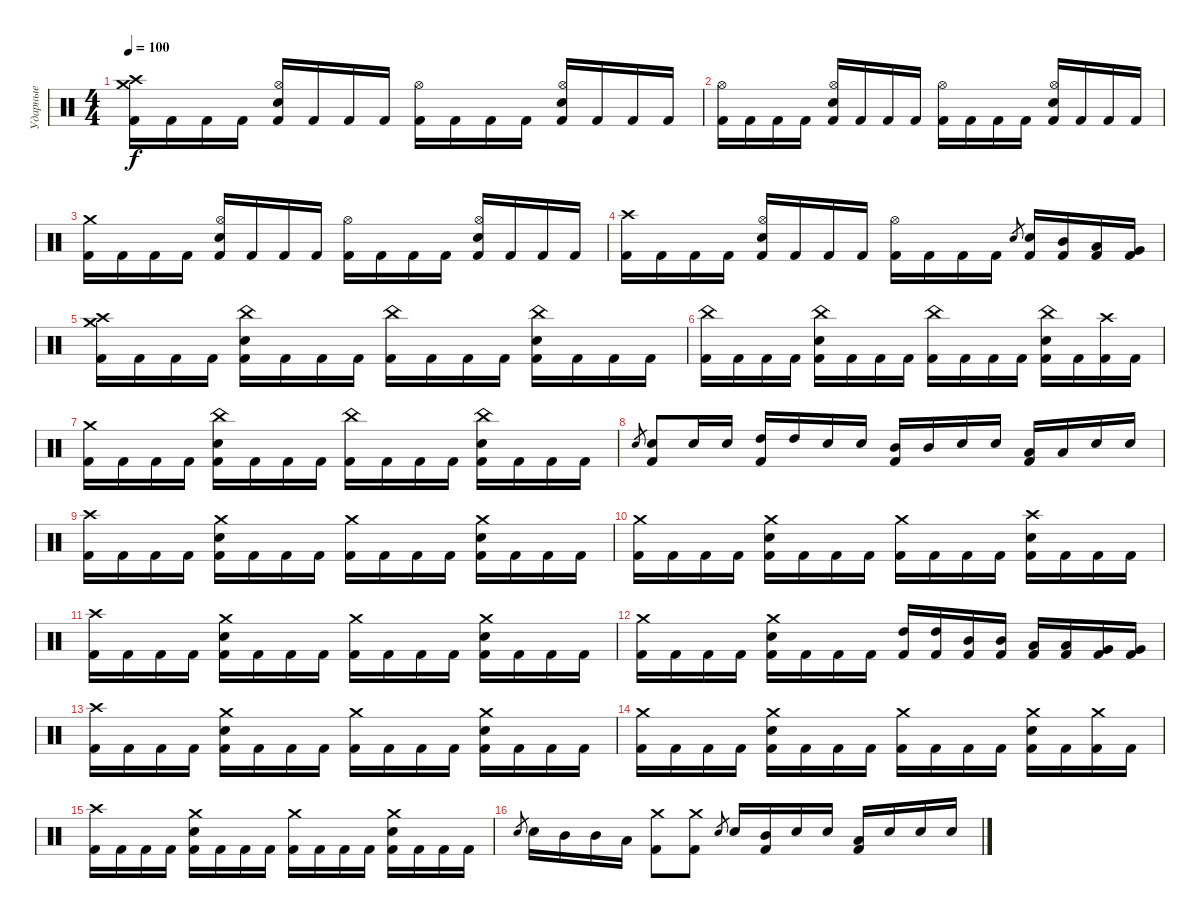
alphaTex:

\track ("Ударные" "Ударные") {instrument percussion}
\staff {score}
\articulation defaults
\ts (4 4)
\tempo 100
\clef neutral
\ks c
("Crash medium (hit)" "Crash high (hit)" "Kick (hit) 2").16{dy f} "Kick (hit) 2".16 "Kick (hit) 2".16 "Kick (hit) 2".16 ("Hi-Hat (open)" "Electric Snare (hit)" "Kick (hit) 2").16 "Kick (hit) 2".16 "Kick (hit) 2".16 "Kick (hit) 2".16 ("Hi-Hat (open)" "Kick (hit) 2").16 "Kick (hit) 2".16 "Kick (hit) 2".16 "Kick (hit) 2".16 ("Hi-Hat (open)" "Electric Snare (hit)" "Kick (hit) 2").16 "Kick (hit) 2".16 "Kick (hit) 2".16 "Kick (hit) 2".16 |
("Hi-Hat (open)" "Kick (hit) 2").16 "Kick (hit) 2".16 "Kick (hit) 2".16 "Kick (hit) 2".16 ("Hi-Hat (open)" "Electric Snare (hit)" "Kick (hit) 2").16 "Kick (hit) 2".16 "Kick (hit) 2".16 "Kick (hit) 2".16 ("Hi-Hat (open)" "Kick (hit) 2").16 "Kick (hit) 2".16 "Kick (hit) 2".16 "Kick (hit) 2".16 ("Hi-Hat (open)" "Electric Snare (hit)" "Kick (hit) 2").16 "Kick (hit) 2".16 "Kick (hit) 2".16 "Kick (hit) 2".16 |
("Crash medium (hit)" "Kick (hit) 2").16 "Kick (hit) 2".16 "Kick (hit) 2".16 "Kick (hit) 2".16 ("Hi-Hat (open)" "Electric Snare (hit)" "Kick (hit) 2").16 "Kick (hit) 2".16 "Kick (hit) 2".16 "Kick (hit) 2".16 ("Hi-Hat (open)" "Kick (hit) 2").16 "Kick (hit) 2".16 "Kick (hit) 2".16 "Kick (hit) 2".16 ("Hi-Hat (open)" "Electric Snare (hit)" "Kick (hit) 2").16 "Kick (hit) 2".16 "Kick (hit) 2".16 "Kick (hit) 2".16 |
("Crash high (hit)" "Kick (hit) 2").16 "Kick (hit) 2".16 "Kick (hit) 2".16 "Kick (hit) 2".16 ("Hi-Hat (open)" "Electric Snare (hit)" "Kick (hit) 2").16 "Kick (hit) 2".16 "Kick (hit) 2".16 "Kick (hit) 2".16 ("Hi-Hat (open)" "Kick (hit) 2").16 "Kick (hit) 2".16 "Kick (hit) 2".16 "Kick (hit) 2".16 "Electric Snare (hit)".8{gr} ("Electric Snare (hit)" "Kick (hit) 2").16 ("Mid Tom (hit)" "Kick (hit) 2").16 ("Low Tom (hit)" "Kick (hit) 2").16 ("Very Low Tom (hit)" "Kick (hit) 2").16 |
("Crash medium (hit)" "Crash high (hit)" "Kick (hit) 2").16 "Kick (hit) 2".16 "Kick (hit) 2".16 "Kick (hit) 2".16 ("China (hit)" "Electric Snare (hit)" "Kick (hit) 2").16 "Kick (hit) 2".16 "Kick (hit) 2".16 "Kick (hit) 2".16 ("China (hit)" "Kick (hit) 2").16 "Kick (hit) 2".16 "Kick (hit) 2".16 "Kick (hit) 2".16 ("China (hit)" "Electric Snare (hit)" "Kick (hit) 2").16 "Kick (hit) 2".16 "Kick (hit) 2".16 "Kick (hit) 2".16 |
("China (hit)" "Kick (hit) 2").16 "Kick (hit) 2".16 "Kick (hit) 2".16 "Kick (hit) 2".16 ("China (hit)" "Electric Snare (hit)" "Kick (hit) 2").16 "Kick (hit) 2".16 "Kick (hit) 2".16 "Kick (hit) 2".16 ("China (hit)" "Kick (hit) 2").16 "Kick (hit) 2".16 "Kick (hit) 2".16 "Kick (hit) 2".16 ("China (hit)" "Electric Snare (hit)" "Kick (hit) 2").16 "Kick (hit) 2".16 ("Crash high (hit)" "Kick (hit) 2").16 "Kick (hit) 2".16 |
("Crash medium (hit)" "Kick (hit) 2").16 "Kick (hit) 2".16 "Kick (hit) 2".16 "Kick (hit) 2".16 ("China (hit)" "Electric Snare (hit)" "Kick (hit) 2").16 "Kick (hit) 2".16 "Kick (hit) 2".16 "Kick (hit) 2".16 ("China (hit)" "Kick (hit) 2").16 "Kick (hit) 2".16 "Kick (hit) 2".16 "Kick (hit) 2".16 ("China (hit)" "Electric Snare (hit)" "Kick (hit) 2").16 "Kick (hit) 2".16 "Kick (hit) 2".16 "Kick (hit) 2".16 |
"Electric Snare (hit)".8{gr} ("Electric Snare (hit)" "Kick (hit) 2").8 "Electric Snare (hit)".16 "Electric Snare (hit)".16 ("High Tom (hit)" "Kick (hit) 2").16 "High Tom (hit)".16 "Electric Snare (hit)".16 "Electric Snare (hit)".16 ("Mid Tom (hit)" "Kick (hit) 2").16 "Mid Tom (hit)".16 "Electric Snare (hit)".16 "Electric Snare (hit)".16 ("Low Tom (hit)" "Kick (hit) 2").16 "Low Tom (hit)".16 "Electric Snare (hit)".16 "Electric Snare (hit)".16 |
("Crash high (hit)" "Kick (hit) 2").16 "Kick (hit) 2".16 "Kick (hit) 2".16 "Kick (hit) 2".16 ("Crash medium (hit)" "Electric Snare (hit)" "Kick (hit) 2").16 "Kick (hit) 2".16 "Kick (hit) 2".16 "Kick (hit) 2".16 ("Crash medium (hit)" "Kick (hit) 2").16 "Kick (hit) 2".16 "Kick (hit) 2".16 "Kick (hit) 2".16 ("Crash medium (hit)" "Electric Snare (hit)" "Kick (hit) 2").16 "Kick (hit) 2".16 "Kick (hit) 2".16 "Kick (hit) 2".16 |
("Crash medium (hit)" "Kick (hit) 2").16 "Kick (hit) 2".16 "Kick (hit) 2".16 "Kick (hit) 2".16 ("Crash medium (hit)" "Electric Snare (hit)" "Kick (hit) 2").16 "Kick (hit) 2".16 "Kick (hit) 2".16 "Kick (hit) 2".16 ("Crash medium (hit)" "Kick (hit) 2").16 "Kick (hit) 2".16 "Kick (hit) 2".16 "Kick (hit) 2".16 ("Crash high (hit)" "Electric Snare (hit)" "Kick (hit) 2").16 "Kick (hit) 2".16 "Kick (hit) 2".16 "Kick (hit) 2".16 |
("Crash high (hit)" "Kick (hit) 2").16 "Kick (hit) 2".16 "Kick (hit) 2".16 "Kick (hit) 2".16 ("Crash medium (hit)" "Electric Snare (hit)" "Kick (hit) 2").16 "Kick (hit) 2".16 "Kick (hit) 2".16 "Kick (hit) 2".16 ("Crash medium (hit)" "Kick (hit) 2").16 "Kick (hit) 2".16 "Kick (hit) 2".16 "Kick (hit) 2".16 ("Crash medium (hit)" "Electric Snare (hit)" "Kick (hit) 2").16 "Kick (hit) 2".16 "Kick (hit) 2".16 "Kick (hit) 2".16 |
("Crash medium (hit)" "Kick (hit) 2").16 "Kick (hit) 2".16 "Kick (hit) 2".16 "Kick (hit) 2".16 ("Crash medium (hit)" "Electric Snare (hit)" "Kick (hit) 2").16 "Kick (hit) 2".16 "Kick (hit) 2".16 "Kick (hit) 2".16 ("High Tom (hit)" "Kick (hit) 2").16 ("High Tom (hit)" "Kick (hit) 2").16 ("Mid Tom (hit)" "Kick (hit) 2").16 ("Mid Tom (hit)" "Kick (hit) 2").16 ("Low Tom (hit)" "Kick (hit) 2").16 ("Low Tom (hit)" "Kick (hit) 2").16 ("Very Low Tom (hit)" "Kick (hit) 2").16 ("Very Low Tom (hit)" "Kick (hit) 2").16 |
("Crash high (hit)" "Kick (hit) 2").16 "Kick (hit) 2".16 "Kick (hit) 2".16 "Kick (hit) 2".16 ("Crash medium (hit)" "Electric Snare (hit)" "Kick (hit) 2").16 "Kick (hit) 2".16 "Kick (hit) 2".16 "Kick (hit) 2".16 ("Crash medium (hit)" "Kick (hit) 2").16 "Kick (hit) 2".16 "Kick (hit) 2".16 "Kick (hit) 2".16 ("Crash medium (hit)" "Electric Snare (hit)" "Kick (hit) 2").16 "Kick (hit) 2".16 "Kick (hit) 2".16 "Kick (hit) 2".16 |
("Crash medium (hit)" "Kick (hit) 2").16 "Kick (hit) 2".16 "Kick (hit) 2".16 "Kick (hit) 2".16 ("Crash medium (hit)" "Electric Snare (hit)" "Kick (hit) 2").16 "Kick (hit) 2".16 "Kick (hit) 2".16 "Kick (hit) 2".16 ("Crash medium (hit)" "Kick (hit) 2").16 "Kick (hit) 2".16 "Kick (hit) 2".16 "Kick (hit) 2".16 ("Crash medium (hit)" "Electric Snare (hit)" "Kick (hit) 2").16 "Kick (hit) 2".16 ("Crash medium (hit)" "Kick (hit) 2").16 "Kick (hit) 2".16 |
("Crash high (hit)" "Kick (hit) 2").16 "Kick (hit) 2".16 "Kick (hit) 2".16 "Kick (hit) 2".16 ("Crash medium (hit)" "Electric Snare (hit)" "Kick (hit) 2").16 "Kick (hit) 2".16 "Kick (hit) 2".16 "Kick (hit) 2".16 ("Crash medium (hit)" "Kick (hit) 2").16 "Kick (hit) 2".16 "Kick (hit) 2".16 "Kick (hit) 2".16 ("Crash medium (hit)" "Electric Snare (hit)" "Kick (hit) 2").16 "Kick (hit) 2".16 "Kick (hit) 2".16 "Kick (hit) 2".16 |
"Electric Snare (hit)".8{gr} "Electric Snare (hit)".16 "Mid Tom (hit)".16 "Mid Tom (hit)".16 "Low Tom (hit)".16 ("Crash medium (hit)" "Kick (hit) 2").8 ("Crash medium (hit)" "Kick (hit) 2").8 "Electric Snare (hit)".8{gr} "Electric Snare (hit)".16 ("Mid Tom (hit)" "Kick (hit) 2").16 "Electric Snare (hit)".16 "Electric Snare (hit)".16 ("Low Tom (hit)" "Kick (hit) 2").16 "Electric Snare (hit)".16 "Electric Snare (hit)".16 "Electric Snare (hit)".16
